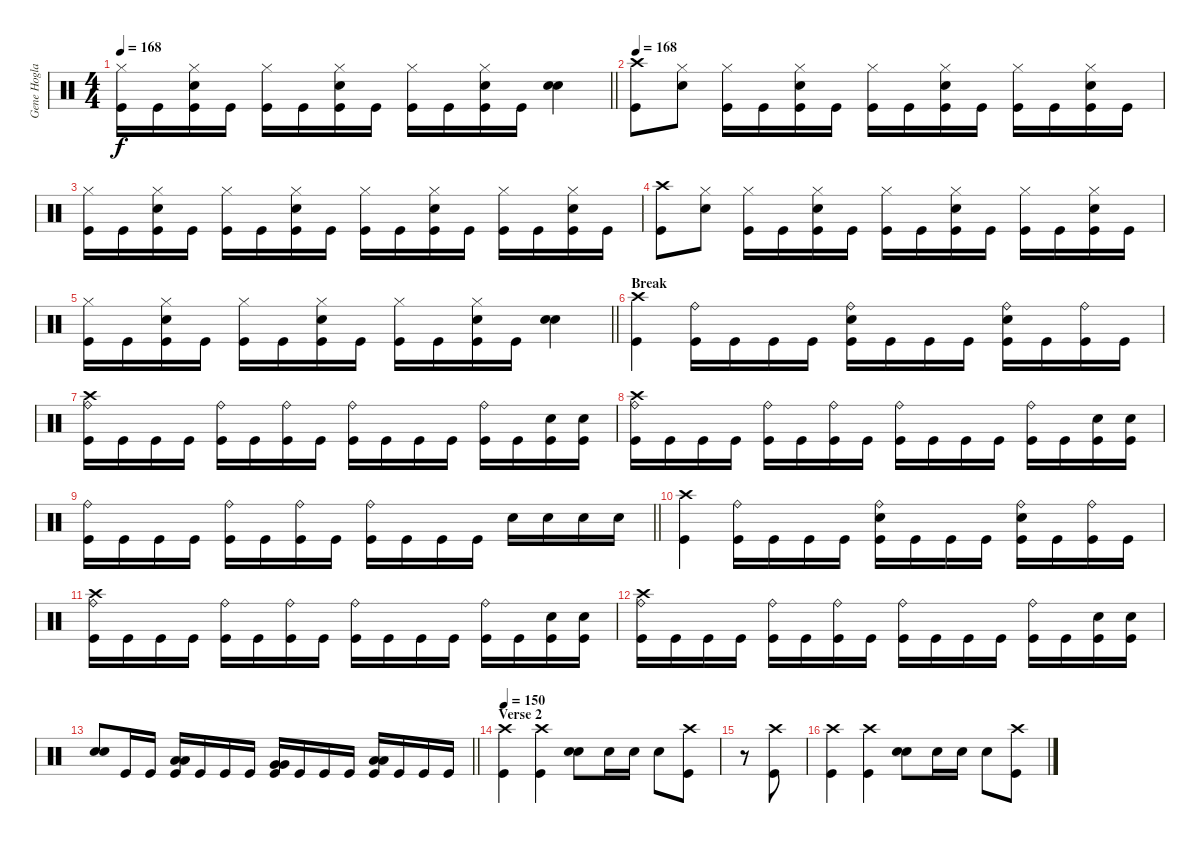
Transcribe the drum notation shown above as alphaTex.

\track ("Gene Hoglan" "Gene Hogla") {instrument percussion}
\staff {score}
\articulation defaults
\ts (4 4)
\tempo 168
\clef neutral
\barLineRight lightlight
\ks c
("Hi-Hat (closed)" "Kick (hit)").16{dy f} "Kick (hit)".16 ("Snare (hit) 2" "Hi-Hat (closed)" "Kick (hit)").16 "Kick (hit)".16 ("Hi-Hat (closed)" "Kick (hit)").16 "Kick (hit)".16 ("Snare (hit) 2" "Hi-Hat (closed)" "Kick (hit)").16 "Kick (hit)".16 ("Hi-Hat (closed)" "Kick (hit)").16 "Kick (hit)".16 ("Snare (hit) 2" "Hi-Hat (closed)" "Kick (hit)").16 "Kick (hit)".16 ("Snare (hit) 2" "Snare (hit) 2").4 |
\tempo 168
("Crash high (hit)" "Kick (hit)").8 ("Hi-Hat (closed)" "Snare (hit) 2").8 ("Hi-Hat (closed)" "Kick (hit)").16 "Kick (hit)".16 ("Snare (hit) 2" "Hi-Hat (closed)" "Kick (hit)").16 "Kick (hit)".16 ("Hi-Hat (closed)" "Kick (hit)").16 "Kick (hit)".16 ("Snare (hit) 2" "Hi-Hat (closed)" "Kick (hit)").16 "Kick (hit)".16 ("Hi-Hat (closed)" "Kick (hit)").16 "Kick (hit)".16 ("Snare (hit) 2" "Hi-Hat (closed)" "Kick (hit)").16 "Kick (hit)".16 |
("Hi-Hat (closed)" "Kick (hit)").16 "Kick (hit)".16 ("Snare (hit) 2" "Hi-Hat (closed)" "Kick (hit)").16 "Kick (hit)".16 ("Hi-Hat (closed)" "Kick (hit)").16 "Kick (hit)".16 ("Snare (hit) 2" "Hi-Hat (closed)" "Kick (hit)").16 "Kick (hit)".16 ("Hi-Hat (closed)" "Kick (hit)").16 "Kick (hit)".16 ("Snare (hit) 2" "Hi-Hat (closed)" "Kick (hit)").16 "Kick (hit)".16 ("Hi-Hat (closed)" "Kick (hit)").16 "Kick (hit)".16 ("Snare (hit) 2" "Hi-Hat (closed)" "Kick (hit)").16 "Kick (hit)".16 |
("Crash high (hit)" "Kick (hit)").8 ("Hi-Hat (closed)" "Snare (hit) 2").8 ("Hi-Hat (closed)" "Kick (hit)").16 "Kick (hit)".16 ("Snare (hit) 2" "Hi-Hat (closed)" "Kick (hit)").16 "Kick (hit)".16 ("Hi-Hat (closed)" "Kick (hit)").16 "Kick (hit)".16 ("Snare (hit) 2" "Hi-Hat (closed)" "Kick (hit)").16 "Kick (hit)".16 ("Hi-Hat (closed)" "Kick (hit)").16 "Kick (hit)".16 ("Snare (hit) 2" "Hi-Hat (closed)" "Kick (hit)").16 "Kick (hit)".16 |
\barLineRight lightlight
("Hi-Hat (closed)" "Kick (hit)").16 "Kick (hit)".16 ("Snare (hit) 2" "Hi-Hat (closed)" "Kick (hit)").16 "Kick (hit)".16 ("Hi-Hat (closed)" "Kick (hit)").16 "Kick (hit)".16 ("Snare (hit) 2" "Hi-Hat (closed)" "Kick (hit)").16 "Kick (hit)".16 ("Hi-Hat (closed)" "Kick (hit)").16 "Kick (hit)".16 ("Snare (hit) 2" "Hi-Hat (closed)" "Kick (hit)").16 "Kick (hit)".16 ("Snare (hit) 2" "Snare (hit) 2").4 |
\section ("" "Break")
("Crash high (hit)" "Kick (hit)").4 ("Ride (bell)" "Kick (hit)").16 "Kick (hit)".16 "Kick (hit)".16 "Kick (hit)".16 ("Snare (hit) 2" "Ride (bell)" "Kick (hit)").16 "Kick (hit)".16 "Kick (hit)".16 "Kick (hit)".16 ("Snare (hit) 2" "Ride (bell)" "Kick (hit)").16 "Kick (hit)".16 ("Ride (bell)" "Kick (hit)").16 "Kick (hit)".16 |
("Crash high (hit)" "Ride (bell)" "Kick (hit)").16 "Kick (hit)".16 "Kick (hit)".16 "Kick (hit)".16 ("Ride (bell)" "Kick (hit)").16 "Kick (hit)".16 ("Ride (bell)" "Kick (hit)").16 "Kick (hit)".16 ("Ride (bell)" "Kick (hit)").16 "Kick (hit)".16 "Kick (hit)".16 "Kick (hit)".16 ("Ride (bell)" "Kick (hit)").16 "Kick (hit)".16 ("Snare (hit) 2" "Kick (hit)").16 ("Snare (hit) 2" "Kick (hit)").16 |
("Crash high (hit)" "Ride (bell)" "Kick (hit)").16 "Kick (hit)".16 "Kick (hit)".16 "Kick (hit)".16 ("Ride (bell)" "Kick (hit)").16 "Kick (hit)".16 ("Ride (bell)" "Kick (hit)").16 "Kick (hit)".16 ("Ride (bell)" "Kick (hit)").16 "Kick (hit)".16 "Kick (hit)".16 "Kick (hit)".16 ("Ride (bell)" "Kick (hit)").16 "Kick (hit)".16 ("Snare (hit) 2" "Kick (hit)").16 ("Snare (hit) 2" "Kick (hit)").16 |
\barLineRight lightlight
("Ride (bell)" "Kick (hit)").16 "Kick (hit)".16 "Kick (hit)".16 "Kick (hit)".16 ("Ride (bell)" "Kick (hit)").16 "Kick (hit)".16 ("Ride (bell)" "Kick (hit)").16 "Kick (hit)".16 ("Ride (bell)" "Kick (hit)").16 "Kick (hit)".16 "Kick (hit)".16 "Kick (hit)".16 "Snare (hit) 2".16 "Snare (hit) 2".16 "Snare (hit) 2".16 "Snare (hit) 2".16 |
("Crash high (hit)" "Kick (hit)").4 ("Ride (bell)" "Kick (hit)").16 "Kick (hit)".16 "Kick (hit)".16 "Kick (hit)".16 ("Snare (hit) 2" "Ride (bell)" "Kick (hit)").16 "Kick (hit)".16 "Kick (hit)".16 "Kick (hit)".16 ("Snare (hit) 2" "Ride (bell)" "Kick (hit)").16 "Kick (hit)".16 ("Ride (bell)" "Kick (hit)").16 "Kick (hit)".16 |
("Crash high (hit)" "Ride (bell)" "Kick (hit)").16 "Kick (hit)".16 "Kick (hit)".16 "Kick (hit)".16 ("Ride (bell)" "Kick (hit)").16 "Kick (hit)".16 ("Ride (bell)" "Kick (hit)").16 "Kick (hit)".16 ("Ride (bell)" "Kick (hit)").16 "Kick (hit)".16 "Kick (hit)".16 "Kick (hit)".16 ("Ride (bell)" "Kick (hit)").16 "Kick (hit)".16 ("Snare (hit) 2" "Kick (hit)").16 ("Snare (hit) 2" "Kick (hit)").16 |
("Crash high (hit)" "Ride (bell)" "Kick (hit)").16 "Kick (hit)".16 "Kick (hit)".16 "Kick (hit)".16 ("Ride (bell)" "Kick (hit)").16 "Kick (hit)".16 ("Ride (bell)" "Kick (hit)").16 "Kick (hit)".16 ("Ride (bell)" "Kick (hit)").16 "Kick (hit)".16 "Kick (hit)".16 "Kick (hit)".16 ("Ride (bell)" "Kick (hit)").16 "Kick (hit)".16 ("Snare (hit) 2" "Kick (hit)").16 ("Snare (hit) 2" "Kick (hit)").16 |
\barLineRight lightlight
("Snare (hit) 2" "Snare (hit) 2").8 "Kick (hit)".16 "Kick (hit)".16 ("Low Tom (hit)" "Low Tom (hit)" "Kick (hit)").16 "Kick (hit)".16 "Kick (hit)".16 "Kick (hit)".16 ("Very Low Tom (hit)" "Very Low Tom (hit)" "Kick (hit)").16 "Kick (hit)".16 "Kick (hit)".16 "Kick (hit)".16 ("Low Floor Tom (hit)" "Low Floor Tom (hit)" "Kick (hit)").16 "Kick (hit)".16 "Kick (hit)".16 "Kick (hit)".16 |
\section ("" "Verse 2")
\tempo 150
("Kick (hit)" "Crash high (hit)").4 ("Kick (hit)" "Crash high (hit)").4 ("Snare (hit) 2" "Snare (hit) 2").8 "Snare (hit) 2".16 "Snare (hit) 2".16 "Snare (hit) 2".8 ("Kick (hit)" "Crash high (hit)").8 |
r.8 ("Kick (hit)" "Crash high (hit)").8 |
("Kick (hit)" "Crash high (hit)").4 ("Kick (hit)" "Crash high (hit)").4 ("Snare (hit) 2" "Snare (hit) 2").8 "Snare (hit) 2".16 "Snare (hit) 2".16 "Snare (hit) 2".8 ("Kick (hit)" "Crash high (hit)").8
